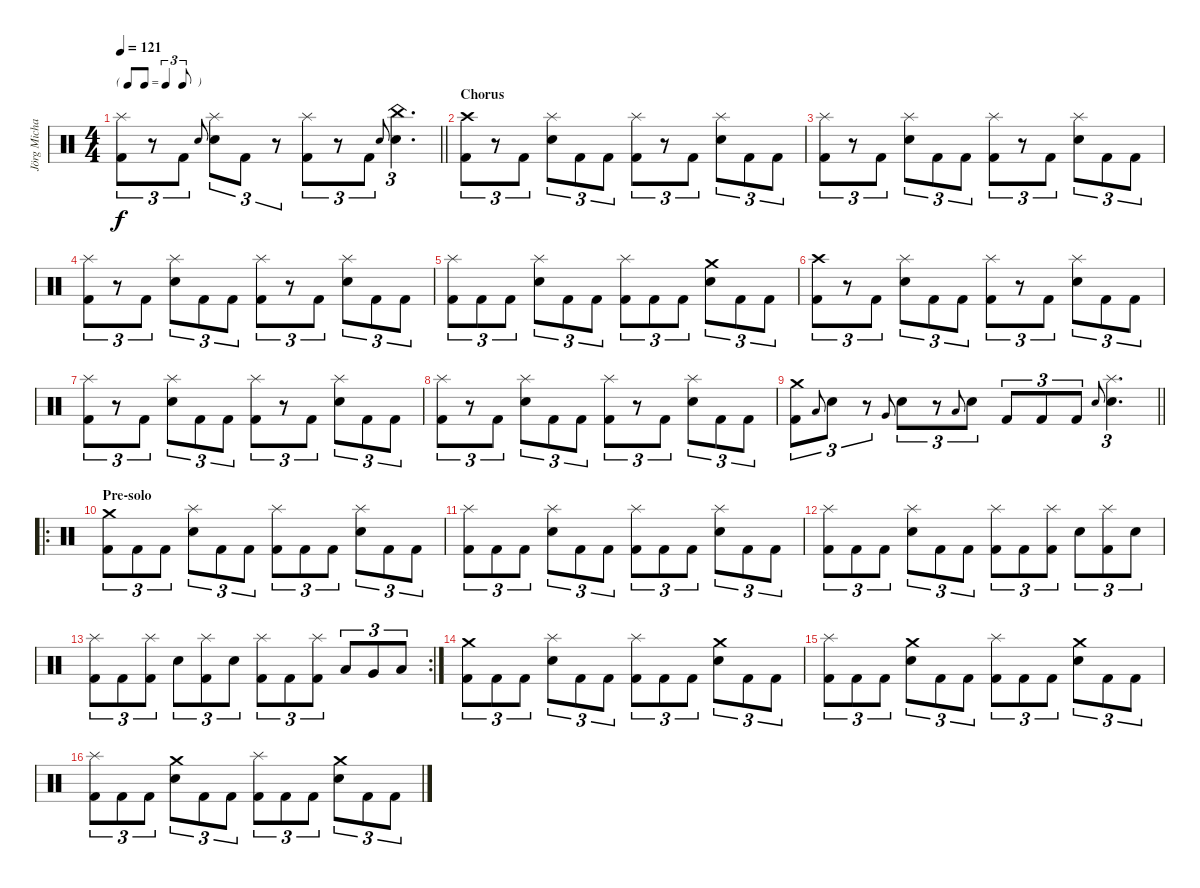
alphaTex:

\track ("Jörg Michael" "Jörg Micha") {instrument percussion}
\staff {score}
\articulation defaults
\ts (4 4)
\tf triplet8th
\tempo 121
\clef neutral
\barLineRight lightlight
\ks c
("Splash (hit)" "Kick (hit) 2").8{tu (3 2) dy f} r.8{tu (3 2)} "Kick (hit) 2".8{tu (3 2)} "Snare (hit) 2".8{gr onbeat} ("Splash (hit)" "Snare (hit) 2").8{tu (3 2)} "Kick (hit) 2".8{tu (3 2)} r.8{tu (3 2)} ("Splash (hit)" "Kick (hit) 2").8{tu (3 2)} r.8{tu (3 2)} "Kick (hit) 2".8{tu (3 2)} "Snare (hit) 2".8{gr onbeat} ("China (hit)" "Snare (hit) 2").4{d tu (3 2)} |
\section ("" "Chorus")
("Crash high (hit)" "Kick (hit) 2").8{tu (3 2)} r.8{tu (3 2)} "Kick (hit) 2".8{tu (3 2)} ("Splash (hit)" "Snare (hit) 2").8{tu (3 2)} "Kick (hit) 2".8{tu (3 2)} "Kick (hit) 2".8{tu (3 2)} ("Splash (hit)" "Kick (hit) 2").8{tu (3 2)} r.8{tu (3 2)} "Kick (hit) 2".8{tu (3 2)} ("Splash (hit)" "Snare (hit) 2").8{tu (3 2)} "Kick (hit) 2".8{tu (3 2)} "Kick (hit) 2".8{tu (3 2)} |
("Splash (hit)" "Kick (hit) 2").8{tu (3 2)} r.8{tu (3 2)} "Kick (hit) 2".8{tu (3 2)} ("Splash (hit)" "Snare (hit) 2").8{tu (3 2)} "Kick (hit) 2".8{tu (3 2)} "Kick (hit) 2".8{tu (3 2)} ("Splash (hit)" "Kick (hit) 2").8{tu (3 2)} r.8{tu (3 2)} "Kick (hit) 2".8{tu (3 2)} ("Splash (hit)" "Snare (hit) 2").8{tu (3 2)} "Kick (hit) 2".8{tu (3 2)} "Kick (hit) 2".8{tu (3 2)} |
("Splash (hit)" "Kick (hit) 2").8{tu (3 2)} r.8{tu (3 2)} "Kick (hit) 2".8{tu (3 2)} ("Splash (hit)" "Snare (hit) 2").8{tu (3 2)} "Kick (hit) 2".8{tu (3 2)} "Kick (hit) 2".8{tu (3 2)} ("Splash (hit)" "Kick (hit) 2").8{tu (3 2)} r.8{tu (3 2)} "Kick (hit) 2".8{tu (3 2)} ("Splash (hit)" "Snare (hit) 2").8{tu (3 2)} "Kick (hit) 2".8{tu (3 2)} "Kick (hit) 2".8{tu (3 2)} |
("Splash (hit)" "Kick (hit) 2").8{tu (3 2)} "Kick (hit) 2".8{tu (3 2)} "Kick (hit) 2".8{tu (3 2)} ("Splash (hit)" "Snare (hit) 2").8{tu (3 2)} "Kick (hit) 2".8{tu (3 2)} "Kick (hit) 2".8{tu (3 2)} ("Splash (hit)" "Kick (hit) 2").8{tu (3 2)} "Kick (hit) 2".8{tu (3 2)} "Kick (hit) 2".8{tu (3 2)} ("Crash medium (hit)" "Snare (hit) 2").8{tu (3 2)} "Kick (hit) 2".8{tu (3 2)} "Kick (hit) 2".8{tu (3 2)} |
("Crash high (hit)" "Kick (hit) 2").8{tu (3 2)} r.8{tu (3 2)} "Kick (hit) 2".8{tu (3 2)} ("Splash (hit)" "Snare (hit) 2").8{tu (3 2)} "Kick (hit) 2".8{tu (3 2)} "Kick (hit) 2".8{tu (3 2)} ("Splash (hit)" "Kick (hit) 2").8{tu (3 2)} r.8{tu (3 2)} "Kick (hit) 2".8{tu (3 2)} ("Splash (hit)" "Snare (hit) 2").8{tu (3 2)} "Kick (hit) 2".8{tu (3 2)} "Kick (hit) 2".8{tu (3 2)} |
("Splash (hit)" "Kick (hit) 2").8{tu (3 2)} r.8{tu (3 2)} "Kick (hit) 2".8{tu (3 2)} ("Splash (hit)" "Snare (hit) 2").8{tu (3 2)} "Kick (hit) 2".8{tu (3 2)} "Kick (hit) 2".8{tu (3 2)} ("Splash (hit)" "Kick (hit) 2").8{tu (3 2)} r.8{tu (3 2)} "Kick (hit) 2".8{tu (3 2)} ("Splash (hit)" "Snare (hit) 2").8{tu (3 2)} "Kick (hit) 2".8{tu (3 2)} "Kick (hit) 2".8{tu (3 2)} |
("Splash (hit)" "Kick (hit) 2").8{tu (3 2)} r.8{tu (3 2)} "Kick (hit) 2".8{tu (3 2)} ("Splash (hit)" "Snare (hit) 2").8{tu (3 2)} "Kick (hit) 2".8{tu (3 2)} "Kick (hit) 2".8{tu (3 2)} ("Splash (hit)" "Kick (hit) 2").8{tu (3 2)} r.8{tu (3 2)} "Kick (hit) 2".8{tu (3 2)} ("Splash (hit)" "Snare (hit) 2").8{tu (3 2)} "Kick (hit) 2".8{tu (3 2)} "Kick (hit) 2".8{tu (3 2)} |
\barLineRight lightlight
("Crash medium (hit)" "Kick (hit) 2").8{tu (3 2)} "Low Tom (hit)".8{gr onbeat} "Snare (hit) 2".8{tu (3 2)} r.8{tu (3 2)} "Very Low Tom (hit)".8{gr onbeat} "Snare (hit) 2".8{tu (3 2)} r.8{tu (3 2)} "Low Floor Tom (hit)".8{gr onbeat} "Snare (hit) 2".8{tu (3 2)} "Kick (hit) 2".8{tu (3 2)} "Kick (hit) 2".8{tu (3 2)} "Kick (hit) 2".8{tu (3 2)} "Snare (hit) 2".8{gr onbeat} ("Splash (hit)" "Snare (hit) 2").4{d tu (3 2)} |
\ro
\section ("" "Pre-solo")
("Crash medium (hit)" "Kick (hit) 2").8{tu (3 2)} "Kick (hit) 2".8{tu (3 2)} "Kick (hit) 2".8{tu (3 2)} ("Splash (hit)" "Snare (hit) 2").8{tu (3 2)} "Kick (hit) 2".8{tu (3 2)} "Kick (hit) 2".8{tu (3 2)} ("Splash (hit)" "Kick (hit) 2").8{tu (3 2)} "Kick (hit) 2".8{tu (3 2)} "Kick (hit) 2".8{tu (3 2)} ("Splash (hit)" "Snare (hit) 2").8{tu (3 2)} "Kick (hit) 2".8{tu (3 2)} "Kick (hit) 2".8{tu (3 2)} |
("Splash (hit)" "Kick (hit) 2").8{tu (3 2)} "Kick (hit) 2".8{tu (3 2)} "Kick (hit) 2".8{tu (3 2)} ("Splash (hit)" "Snare (hit) 2").8{tu (3 2)} "Kick (hit) 2".8{tu (3 2)} "Kick (hit) 2".8{tu (3 2)} ("Splash (hit)" "Kick (hit) 2").8{tu (3 2)} "Kick (hit) 2".8{tu (3 2)} "Kick (hit) 2".8{tu (3 2)} ("Splash (hit)" "Snare (hit) 2").8{tu (3 2)} "Kick (hit) 2".8{tu (3 2)} "Kick (hit) 2".8{tu (3 2)} |
("Splash (hit)" "Kick (hit) 2").8{tu (3 2)} "Kick (hit) 2".8{tu (3 2)} "Kick (hit) 2".8{tu (3 2)} ("Splash (hit)" "Snare (hit) 2").8{tu (3 2)} "Kick (hit) 2".8{tu (3 2)} "Kick (hit) 2".8{tu (3 2)} ("Splash (hit)" "Kick (hit) 2").8{tu (3 2)} "Kick (hit) 2".8{tu (3 2)} ("Splash (hit)" "Kick (hit) 2").8{tu (3 2)} "Snare (hit) 2".8{tu (3 2)} ("Splash (hit)" "Kick (hit) 2").8{tu (3 2)} "Snare (hit) 2".8{tu (3 2)} |
\rc 2
("Splash (hit)" "Kick (hit) 2").8{tu (3 2)} "Kick (hit) 2".8{tu (3 2)} ("Splash (hit)" "Kick (hit) 2").8{tu (3 2)} "Snare (hit) 2".8{tu (3 2)} ("Splash (hit)" "Kick (hit) 2").8{tu (3 2)} "Snare (hit) 2".8{tu (3 2)} ("Splash (hit)" "Kick (hit) 2").8{tu (3 2)} "Kick (hit) 2".8{tu (3 2)} ("Splash (hit)" "Kick (hit) 2").8{tu (3 2)} "Low Tom (hit)".8{tu (3 2)} "Very Low Tom (hit)".8{tu (3 2)} "Low Floor Tom (hit)".8{tu (3 2)} |
("Crash medium (hit)" "Kick (hit) 2").8{tu (3 2)} "Kick (hit) 2".8{tu (3 2)} "Kick (hit) 2".8{tu (3 2)} ("Splash (hit)" "Snare (hit) 2").8{tu (3 2)} "Kick (hit) 2".8{tu (3 2)} "Kick (hit) 2".8{tu (3 2)} ("Splash (hit)" "Kick (hit) 2").8{tu (3 2)} "Kick (hit) 2".8{tu (3 2)} "Kick (hit) 2".8{tu (3 2)} ("Crash medium (hit)" "Snare (hit) 2").8{tu (3 2)} "Kick (hit) 2".8{tu (3 2)} "Kick (hit) 2".8{tu (3 2)} |
("Splash (hit)" "Kick (hit) 2").8{tu (3 2)} "Kick (hit) 2".8{tu (3 2)} "Kick (hit) 2".8{tu (3 2)} ("Crash medium (hit)" "Snare (hit) 2").8{tu (3 2)} "Kick (hit) 2".8{tu (3 2)} "Kick (hit) 2".8{tu (3 2)} ("Splash (hit)" "Kick (hit) 2").8{tu (3 2)} "Kick (hit) 2".8{tu (3 2)} "Kick (hit) 2".8{tu (3 2)} ("Crash medium (hit)" "Snare (hit) 2").8{tu (3 2)} "Kick (hit) 2".8{tu (3 2)} "Kick (hit) 2".8{tu (3 2)} |
("Splash (hit)" "Kick (hit) 2").8{tu (3 2)} "Kick (hit) 2".8{tu (3 2)} "Kick (hit) 2".8{tu (3 2)} ("Crash medium (hit)" "Snare (hit) 2").8{tu (3 2)} "Kick (hit) 2".8{tu (3 2)} "Kick (hit) 2".8{tu (3 2)} ("Splash (hit)" "Kick (hit) 2").8{tu (3 2)} "Kick (hit) 2".8{tu (3 2)} "Kick (hit) 2".8{tu (3 2)} ("Crash medium (hit)" "Snare (hit) 2").8{tu (3 2)} "Kick (hit) 2".8{tu (3 2)} "Kick (hit) 2".8{tu (3 2)}
